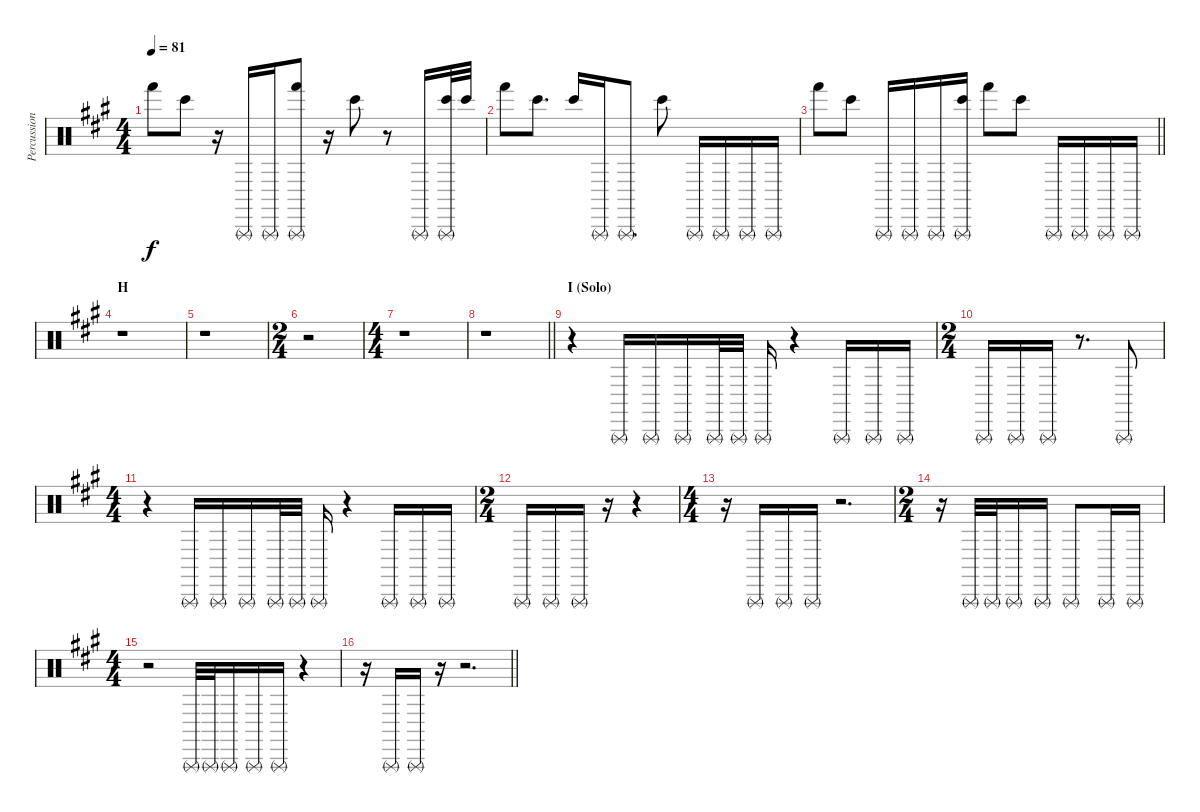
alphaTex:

\track ("Percussion" "Percussion") {instrument percussion}
\staff {score}
\articulation defaults
\ts (4 4)
\tempo 81
\clef neutral
\ks f#minor "Hand (hit)".8{dy f} "Bongo High (hit)".8
r.16 "Triangle (rnute)".16 "Triangle (rnute)".16 ("Hand (hit)" "Triangle (rnute)").8 r.16 "Bongo High (hit)".8 r.8 "Triangle (rnute)".16 ("Bongo High (hit)" "Triangle (rnute)").32 "Bongo High (hit)".32 |
"Hand (hit)".8 "Bongo High (hit)".8{d} "Bongo High (hit)".16 "Triangle (rnute)".16 "Triangle (rnute)".8{d} "Bongo High (hit)".8 "Triangle (rnute)".16 "Triangle (rnute)".16 "Triangle (rnute)".16 "Triangle (rnute)".16 |
\barLineRight lightlight "Hand (hit)".8 "Bongo High (hit)".8 "Triangle (rnute)".16 "Triangle (rnute)".16 "Triangle (rnute)".16
("Bongo High (hit)" "Triangle (rnute)").16 "Hand (hit)".8 "Bongo High (hit)".8 "Triangle (rnute)".16 "Triangle (rnute)".16 "Triangle (rnute)".16 "Triangle (rnute)".16 |
\section ("" "H")
r.1 |
r.1 |
\ts (2 4)
r.2 |
\ts (4 4)
r.1 |
\barLineRight lightlight
r.1 |
\section ("" "I (Solo)")
r.4 "Triangle (rnute)".16 "Triangle (rnute)".16 "Triangle (rnute)".16 "Triangle (rnute)".32 "Triangle (rnute)".32 "Triangle (rnute)".16 r.4 "Triangle (rnute)".16 "Triangle (rnute)".16 "Triangle (rnute)".16 |
\ts (2 4)
"Triangle (rnute)".16 "Triangle (rnute)".16 "Triangle (rnute)".16 r.8{d} "Triangle (rnute)".8 |
\ts (4 4)
r.4 "Triangle (rnute)".16 "Triangle (rnute)".16 "Triangle (rnute)".16 "Triangle (rnute)".32 "Triangle (rnute)".32 "Triangle (rnute)".16 r.4 "Triangle (rnute)".16 "Triangle (rnute)".16 "Triangle (rnute)".16 |
\ts (2 4)
"Triangle (rnute)".16 "Triangle (rnute)".16 "Triangle (rnute)".16 r.16 r.4 |
\ts (4 4)
r.16 "Triangle (rnute)".16 "Triangle (rnute)".16 "Triangle (rnute)".16 r.2{d} |
\ts (2 4)
r.16 "Triangle (rnute)".32 "Triangle (rnute)".32 "Triangle (rnute)".16 "Triangle (rnute)".16 "Triangle (rnute)".8 "Triangle (rnute)".16 "Triangle (rnute)".16 |
\ts (4 4)
r.2 "Triangle (rnute)".32 "Triangle (rnute)".32 "Triangle (rnute)".16 "Triangle (rnute)".16 "Triangle (rnute)".16 r.4 |
\barLineRight lightlight
r.16 "Triangle (rnute)".16 "Triangle (rnute)".16 r.16 r.2{d}
